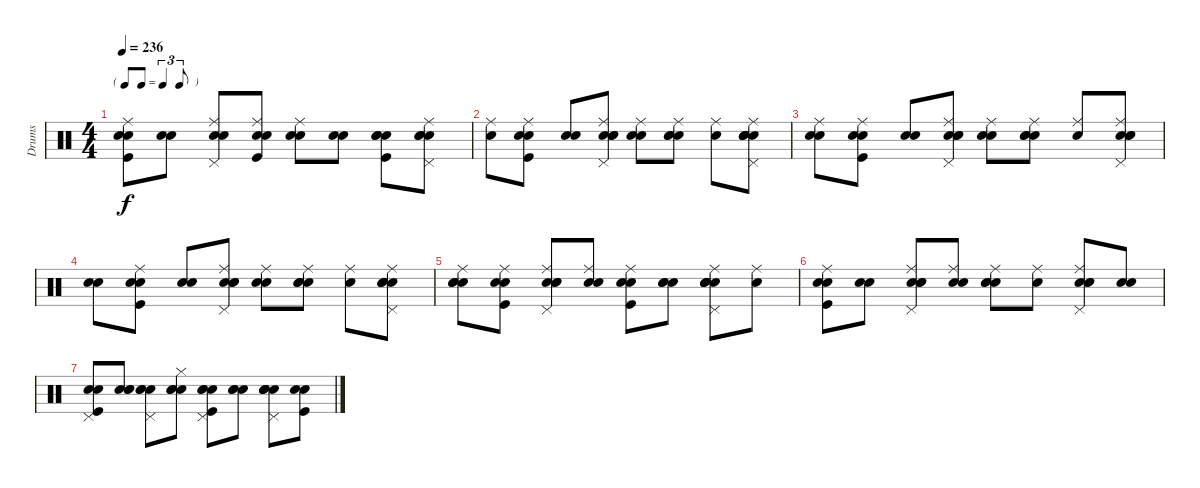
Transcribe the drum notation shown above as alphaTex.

\track ("Drums" "Drums") {instrument percussion}
\staff {score}
\articulation defaults
\ts (4 4)
\tf triplet8th
\tempo 236
\clef neutral
\ks c
("Snare (hit)" "Kick (hit)" "Electric Snare (hit)" "Ride (middle)").8{dy f} ("Snare (hit)" "Electric Snare (hit)").8 ("Snare (hit)" "Snare (hit) 2" "Ride (middle)" "Pedal Hi-Hat (hit)").8 ("Snare (hit)" "Kick (hit)" "Snare (hit) 2" "Ride (middle)").8 ("Snare (hit)" "Electric Snare (hit)" "Ride (middle)").8 ("Snare (hit)" "Snare (hit) 2").8 ("Snare (hit)" "Kick (hit)" "Electric Snare (hit)" "Hand Clap (hit)").8 ("Snare (hit)" "Electric Snare (hit)" "Ride (middle)" "Pedal Hi-Hat (hit)" "Hand Clap (hit)").8 |
("Snare (hit)" "Ride (middle)").8 ("Snare (hit)" "Kick (hit)" "Electric Snare (hit)" "Ride (middle)").8 ("Snare (hit)" "Electric Snare (hit)").8 ("Snare (hit)" "Snare (hit) 2" "Electric Snare (hit)" "Ride (middle)" "Pedal Hi-Hat (hit)").8 ("Snare (hit)" "Snare (hit) 2" "Ride (middle)").8 ("Snare (hit)" "Snare (hit) 2" "Electric Snare (hit)" "Ride (middle)").8 ("Snare (hit)" "Ride (middle)").8 ("Snare (hit)" "Snare (hit) 2" "Electric Snare (hit)" "Ride (middle)" "Pedal Hi-Hat (hit)" "Hand Clap (hit)").8 |
("Snare (hit)" "Snare (hit) 2" "Ride (middle)").8 ("Snare (hit)" "Kick (hit)" "Electric Snare (hit)" "Ride (middle)").8 ("Snare (hit)" "Electric Snare (hit)").8 ("Snare (hit)" "Snare (hit) 2" "Electric Snare (hit)" "Ride (middle)" "Pedal Hi-Hat (hit)").8 ("Snare (hit)" "Snare (hit) 2" "Ride (middle)").8 ("Snare (hit)" "Snare (hit) 2" "Electric Snare (hit)" "Ride (middle)").8 ("Snare (hit)" "Ride (middle)").8 ("Snare (hit)" "Snare (hit) 2" "Electric Snare (hit)" "Ride (middle)" "Pedal Hi-Hat (hit)").8 |
("Snare (hit)" "Snare (hit) 2").8 ("Snare (hit)" "Kick (hit)" "Electric Snare (hit)" "Ride (middle)").8 ("Snare (hit)" "Electric Snare (hit)").8 ("Snare (hit)" "Snare (hit) 2" "Electric Snare (hit)" "Ride (middle)" "Pedal Hi-Hat (hit)").8 ("Snare (hit)" "Snare (hit) 2" "Ride (middle)").8 ("Snare (hit)" "Snare (hit) 2" "Electric Snare (hit)" "Ride (middle)").8 ("Snare (hit)" "Ride (middle)").8 ("Snare (hit)" "Snare (hit) 2" "Electric Snare (hit)" "Ride (middle)" "Pedal Hi-Hat (hit)" "Hand Clap (hit)").8 |
("Snare (hit)" "Snare (hit) 2" "Ride (middle)" "Hand Clap (hit)").8 ("Snare (hit)" "Kick (hit)" "Electric Snare (hit)" "Ride (middle)").8 ("Snare (hit)" "Snare (hit) 2" "Electric Snare (hit)" "Ride (middle)" "Pedal Hi-Hat (hit)").8 ("Snare (hit)" "Snare (hit) 2" "Ride (middle)").8 ("Snare (hit)" "Kick (hit)" "Electric Snare (hit)" "Ride (middle)").8 ("Snare (hit)" "Electric Snare (hit)" "Hand Clap (hit)").8 ("Snare (hit)" "Snare (hit) 2" "Electric Snare (hit)" "Ride (middle)" "Pedal Hi-Hat (hit)" "Hand Clap (hit)").8 ("Snare (hit)" "Ride (middle)").8 |
("Snare (hit)" "Kick (hit)" "Electric Snare (hit)" "Ride (middle)").8 ("Snare (hit)" "Electric Snare (hit)").8 ("Snare (hit)" "Snare (hit) 2" "Electric Snare (hit)" "Ride (middle)" "Pedal Hi-Hat (hit)").8 ("Snare (hit)" "Snare (hit) 2" "Ride (middle)").8 ("Snare (hit)" "Snare (hit) 2" "Electric Snare (hit)" "Ride (middle)").8 ("Snare (hit)" "Ride (middle)").8 ("Snare (hit)" "Snare (hit) 2" "Electric Snare (hit)" "Ride (middle)" "Pedal Hi-Hat (hit)").8 ("Snare (hit)" "Snare (hit) 2").8 |
("Snare (hit)" "Kick (hit)" "Electric Snare (hit)" "Pedal Hi-Hat (hit)").8 ("Snare (hit)" "Electric Snare (hit)" "Hand Clap (hit)").8 ("Snare (hit)" "Snare (hit) 2" "Electric Snare (hit)" "Pedal Hi-Hat (hit)").8 ("Snare (hit)" "Snare (hit) 2" "Hi-Hat (closed)" "Hand Clap (hit)").8 ("Snare (hit)" "Kick (hit)" "Electric Snare (hit)" "Pedal Hi-Hat (hit)" "Hand Clap (hit)").8 ("Snare (hit)" "Electric Snare (hit)" "Hand Clap (hit)").8 ("Snare (hit)" "Snare (hit) 2" "Electric Snare (hit)" "Pedal Hi-Hat (hit)" "Hand Clap (hit)").8 ("Snare (hit)" "Kick (hit)" "Hand Clap (hit)").8
